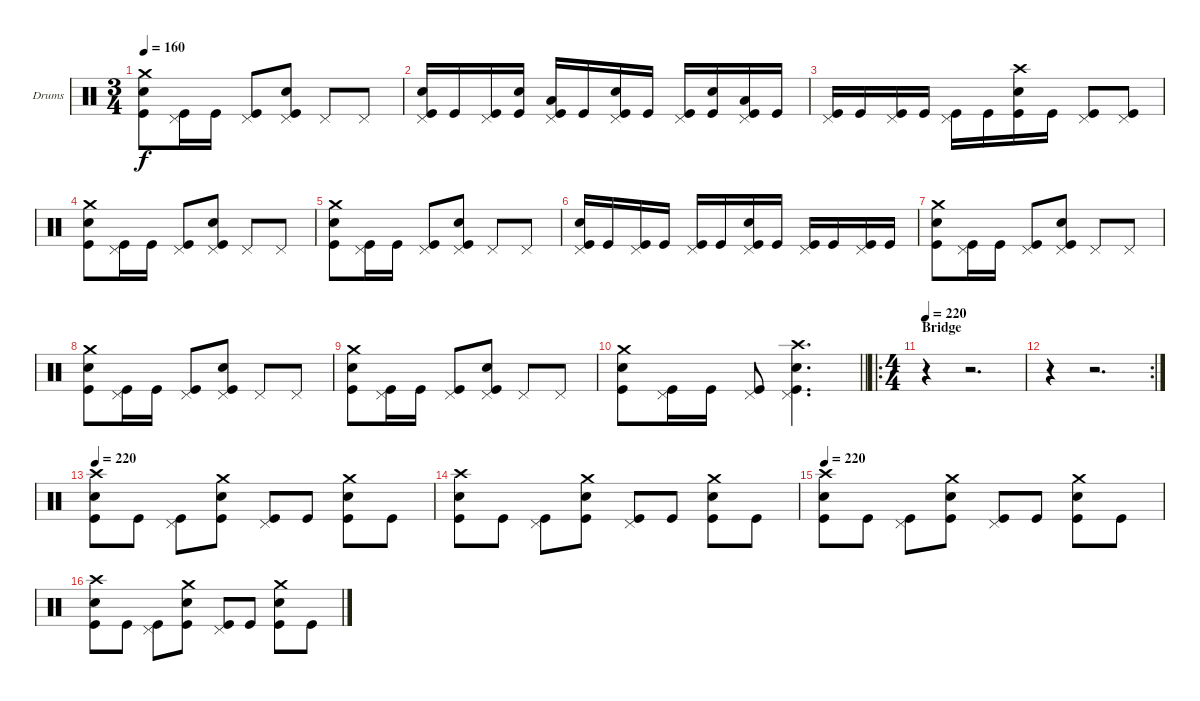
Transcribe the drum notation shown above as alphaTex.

\bracketExtendMode groupsimilarinstruments
\firstSystemTrackNameOrientation horizontal
\otherSystemsTrackNameOrientation horizontal
\track ("Drumkit" "Drums") {instrument percussion}
\staff {score}
\articulation defaults
\ts (3 4)
\tempo 160
\clef neutral
\ks c
("Crash medium (hit)" "Snare (hit) 2" "Kick (hit)").8{dy f} ("Pedal Hi-Hat (hit)" "Kick (hit)").16 "Kick (hit)".16 ("Pedal Hi-Hat (hit)" "Kick (hit)").8 ("Pedal Hi-Hat (hit)" "Kick (hit)" "Snare (hit) 2").8 "Pedal Hi-Hat (hit)".8 "Pedal Hi-Hat (hit)".8 |
("Pedal Hi-Hat (hit)" "Snare (hit) 2" "Kick (hit)").16 "Kick (hit)".16 ("Pedal Hi-Hat (hit)" "Kick (hit)").16 ("Snare (hit) 2" "Kick (hit)").16 ("Pedal Hi-Hat (hit)" "Low Tom (hit)" "Kick (hit)").16 "Kick (hit)".16 ("Pedal Hi-Hat (hit)" "Snare (hit) 2" "Kick (hit)").16 "Kick (hit)".16 ("Pedal Hi-Hat (hit)" "Kick (hit)").16 ("Snare (hit) 2" "Kick (hit)").16 ("Pedal Hi-Hat (hit)" "Low Tom (hit)" "Kick (hit)").16 "Kick (hit)".16 |
("Pedal Hi-Hat (hit)" "Kick (hit)").16 "Kick (hit)".16 ("Pedal Hi-Hat (hit)" "Kick (hit)").16 "Kick (hit)".16 ("Pedal Hi-Hat (hit)" "Kick (hit)").16 "Kick (hit)".16 ("Crash high (hit)" "Snare (hit) 2" "Kick (hit)").16 "Kick (hit)".16 ("Pedal Hi-Hat (hit)" "Kick (hit)").8 ("Pedal Hi-Hat (hit)" "Kick (hit)").8 |
("Crash medium (hit)" "Snare (hit) 2" "Kick (hit)").8 ("Pedal Hi-Hat (hit)" "Kick (hit)").16 "Kick (hit)".16 ("Pedal Hi-Hat (hit)" "Kick (hit)").8 ("Pedal Hi-Hat (hit)" "Kick (hit)" "Snare (hit) 2").8 "Pedal Hi-Hat (hit)".8 "Pedal Hi-Hat (hit)".8 |
("Crash medium (hit)" "Snare (hit) 2" "Kick (hit)").8 ("Pedal Hi-Hat (hit)" "Kick (hit)").16 "Kick (hit)".16 ("Pedal Hi-Hat (hit)" "Kick (hit)").8 ("Pedal Hi-Hat (hit)" "Kick (hit)" "Snare (hit) 2").8 "Pedal Hi-Hat (hit)".8 "Pedal Hi-Hat (hit)".8 |
("Pedal Hi-Hat (hit)" "Snare (hit) 2" "Kick (hit)").16 "Kick (hit)".16 ("Pedal Hi-Hat (hit)" "Kick (hit)").16 "Kick (hit)".16 ("Pedal Hi-Hat (hit)" "Kick (hit)").16 "Kick (hit)".16 ("Pedal Hi-Hat (hit)" "Snare (hit) 2" "Kick (hit)").16 "Kick (hit)".16 ("Pedal Hi-Hat (hit)" "Kick (hit)").16 "Kick (hit)".16 ("Pedal Hi-Hat (hit)" "Kick (hit)").16 "Kick (hit)".16 |
("Crash medium (hit)" "Snare (hit) 2" "Kick (hit)").8 ("Pedal Hi-Hat (hit)" "Kick (hit)").16 "Kick (hit)".16 ("Pedal Hi-Hat (hit)" "Kick (hit)").8 ("Pedal Hi-Hat (hit)" "Kick (hit)" "Snare (hit) 2").8 "Pedal Hi-Hat (hit)".8 "Pedal Hi-Hat (hit)".8 |
("Crash medium (hit)" "Snare (hit) 2" "Kick (hit)").8 ("Pedal Hi-Hat (hit)" "Kick (hit)").16 "Kick (hit)".16 ("Pedal Hi-Hat (hit)" "Kick (hit)").8 ("Pedal Hi-Hat (hit)" "Kick (hit)" "Snare (hit) 2").8 "Pedal Hi-Hat (hit)".8 "Pedal Hi-Hat (hit)".8 |
("Crash medium (hit)" "Snare (hit) 2" "Kick (hit)").8 ("Pedal Hi-Hat (hit)" "Kick (hit)").16 "Kick (hit)".16 ("Pedal Hi-Hat (hit)" "Kick (hit)").8 ("Pedal Hi-Hat (hit)" "Kick (hit)" "Snare (hit) 2").8 "Pedal Hi-Hat (hit)".8 "Pedal Hi-Hat (hit)".8 |
\barLineRight lightlight
("Crash medium (hit)" "Snare (hit) 2" "Kick (hit)").8 ("Pedal Hi-Hat (hit)" "Kick (hit)").16 "Kick (hit)".16 ("Pedal Hi-Hat (hit)" "Kick (hit)").8 ("Crash high (hit)" "Pedal Hi-Hat (hit)" "Kick (hit)" "Snare (hit) 2").4{d} |
\ro
\ts (4 4)
\beaming (8 2 2 2 2)
\section ("" "Bridge")
\tempo 220
r.4 r.2{d} |
\rc 2
r.4 r.2{d} |
\tempo 220
("Crash high (hit)" "Snare (hit) 2" "Kick (hit)").8 "Kick (hit)".8 ("Pedal Hi-Hat (hit)" "Kick (hit)").8 ("Crash medium (hit)" "Snare (hit) 2" "Kick (hit)").8 ("Pedal Hi-Hat (hit)" "Kick (hit)").8 "Kick (hit)".8 ("Crash medium (hit)" "Snare (hit) 2" "Kick (hit)").8 "Kick (hit)".8 |
("Crash high (hit)" "Snare (hit) 2" "Kick (hit)").8 "Kick (hit)".8 ("Pedal Hi-Hat (hit)" "Kick (hit)").8 ("Crash medium (hit)" "Snare (hit) 2" "Kick (hit)").8 ("Pedal Hi-Hat (hit)" "Kick (hit)").8 "Kick (hit)".8 ("Crash medium (hit)" "Snare (hit) 2" "Kick (hit)").8 "Kick (hit)".8 |
\tempo 220
("Crash high (hit)" "Snare (hit) 2" "Kick (hit)").8 "Kick (hit)".8 ("Pedal Hi-Hat (hit)" "Kick (hit)").8 ("Crash medium (hit)" "Snare (hit) 2" "Kick (hit)").8 ("Pedal Hi-Hat (hit)" "Kick (hit)").8 "Kick (hit)".8 ("Crash medium (hit)" "Snare (hit) 2" "Kick (hit)").8 "Kick (hit)".8 |
("Crash high (hit)" "Snare (hit) 2" "Kick (hit)").8 "Kick (hit)".8 ("Pedal Hi-Hat (hit)" "Kick (hit)").8 ("Crash medium (hit)" "Snare (hit) 2" "Kick (hit)").8 ("Pedal Hi-Hat (hit)" "Kick (hit)").8 "Kick (hit)".8 ("Crash medium (hit)" "Snare (hit) 2" "Kick (hit)").8 "Kick (hit)".8
